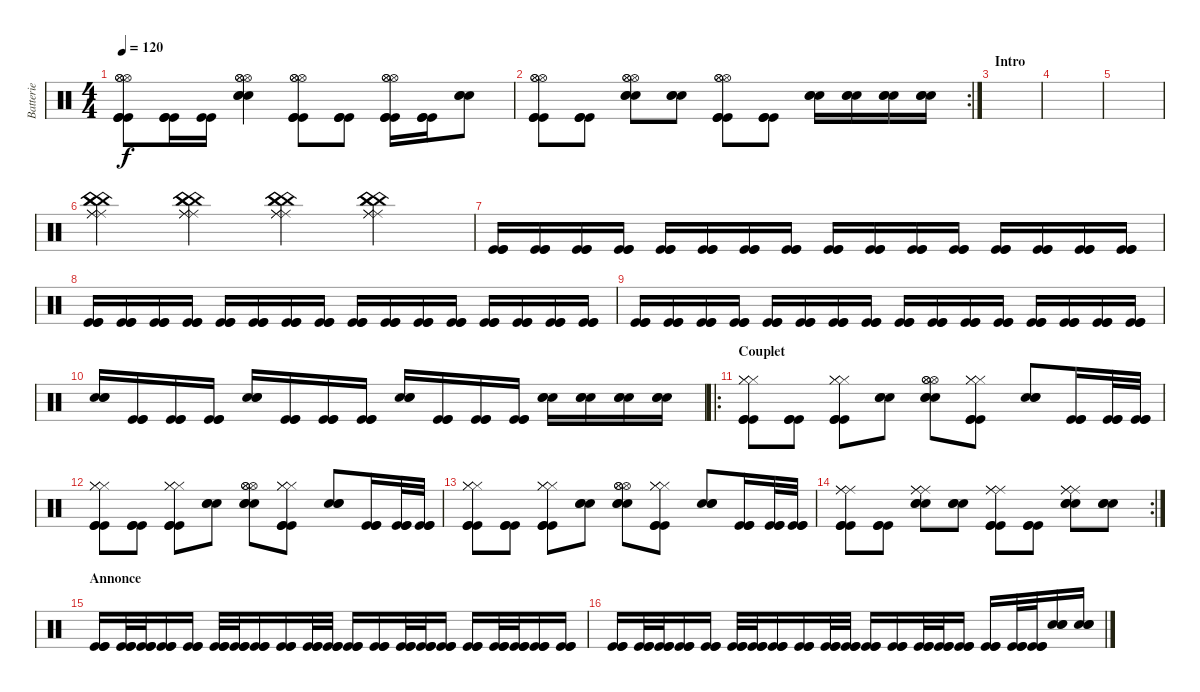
\track ("Batterie" "Batterie") {instrument percussion}
\staff {score}
\articulation defaults
\ts (4 4)
\tempo 120
\clef neutral
\ks c
("Kick (hit)" "Kick (hit)" "Kick (hit)" "Hi-Hat (open)" "Hi-Hat (open)" "Hi-Hat (open)").8{dy f} ("Kick (hit)" "Kick (hit)" "Kick (hit)").16 ("Kick (hit)" "Kick (hit)").16 ("Hi-Hat (open)" "Snare (hit) 2" "Snare (hit) 2" "Snare (hit) 2" "Hi-Hat (open)" "Hi-Hat (open)").4 ("Hi-Hat (open)" "Hi-Hat (open)" "Hi-Hat (open)" "Kick (hit)" "Kick (hit)" "Kick (hit)").8 ("Kick (hit)" "Kick (hit)" "Kick (hit)").8 ("Kick (hit)" "Kick (hit)" "Kick (hit)" "Hi-Hat (open)" "Hi-Hat (open)" "Hi-Hat (open)").16 ("Kick (hit)" "Kick (hit)" "Kick (hit)").16 ("Snare (hit) 2" "Snare (hit) 2" "Snare (hit) 2").8 |
\rc 2
("Hi-Hat (open)" "Hi-Hat (open)" "Hi-Hat (open)" "Kick (hit)" "Kick (hit)" "Kick (hit)").8 ("Kick (hit)" "Kick (hit)" "Kick (hit)").8 ("Hi-Hat (open)" "Hi-Hat (open)" "Snare (hit) 2" "Snare (hit) 2" "Snare (hit) 2" "Hi-Hat (open)").8 ("Snare (hit) 2" "Snare (hit) 2" "Snare (hit) 2").8 ("Hi-Hat (open)" "Hi-Hat (open)" "Hi-Hat (open)" "Kick (hit)" "Kick (hit)" "Kick (hit)").8 ("Kick (hit)" "Kick (hit)" "Kick (hit)").8 ("Snare (hit) 2" "Snare (hit) 2" "Snare (hit) 2").16 ("Snare (hit) 2" "Snare (hit) 2" "Snare (hit) 2").16 ("Snare (hit) 2" "Snare (hit) 2" "Snare (hit) 2").16 ("Snare (hit) 2" "Snare (hit) 2" "Snare (hit) 2").16 |
\section ("" "Intro")
|
|
|
("China (hit)" "China (hit)" "China (hit)" "Ride (middle)" "Ride (middle)" "Ride (middle)").4 ("China (hit)" "China (hit)" "China (hit)" "Ride (middle)" "Ride (middle)" "Ride (middle)").4 ("China (hit)" "China (hit)" "China (hit)" "Ride (middle)" "Ride (middle)" "Ride (middle)").4 ("China (hit)" "China (hit)" "China (hit)" "Ride (middle)" "Ride (middle)" "Ride (middle)").4 |
("Kick (hit)" "Kick (hit)" "Kick (hit)").16 ("Kick (hit)" "Kick (hit)" "Kick (hit)").16 ("Kick (hit)" "Kick (hit)" "Kick (hit)").16 ("Kick (hit)" "Kick (hit)" "Kick (hit)").16 ("Kick (hit)" "Kick (hit)" "Kick (hit)").16 ("Kick (hit)" "Kick (hit)" "Kick (hit)").16 ("Kick (hit)" "Kick (hit)" "Kick (hit)").16 ("Kick (hit)" "Kick (hit)" "Kick (hit)").16 ("Kick (hit)" "Kick (hit)" "Kick (hit)").16 ("Kick (hit)" "Kick (hit)" "Kick (hit)").16 ("Kick (hit)" "Kick (hit)" "Kick (hit)").16 ("Kick (hit)" "Kick (hit)" "Kick (hit)").16 ("Kick (hit)" "Kick (hit)" "Kick (hit)").16 ("Kick (hit)" "Kick (hit)" "Kick (hit)").16 ("Kick (hit)" "Kick (hit)" "Kick (hit)").16 ("Kick (hit)" "Kick (hit)" "Kick (hit)").16 |
("Kick (hit)" "Kick (hit)" "Kick (hit)").16 ("Kick (hit)" "Kick (hit)" "Kick (hit)").16 ("Kick (hit)" "Kick (hit)" "Kick (hit)").16 ("Kick (hit)" "Kick (hit)" "Kick (hit)").16 ("Kick (hit)" "Kick (hit)" "Kick (hit)").16 ("Kick (hit)" "Kick (hit)" "Kick (hit)").16 ("Kick (hit)" "Kick (hit)" "Kick (hit)").16 ("Kick (hit)" "Kick (hit)" "Kick (hit)").16 ("Kick (hit)" "Kick (hit)" "Kick (hit)").16 ("Kick (hit)" "Kick (hit)" "Kick (hit)").16 ("Kick (hit)" "Kick (hit)" "Kick (hit)").16 ("Kick (hit)" "Kick (hit)" "Kick (hit)").16 ("Kick (hit)" "Kick (hit)" "Kick (hit)").16 ("Kick (hit)" "Kick (hit)" "Kick (hit)").16 ("Kick (hit)" "Kick (hit)" "Kick (hit)").16 ("Kick (hit)" "Kick (hit)" "Kick (hit)").16 |
("Kick (hit)" "Kick (hit)" "Kick (hit)").16 ("Kick (hit)" "Kick (hit)" "Kick (hit)").16 ("Kick (hit)" "Kick (hit)" "Kick (hit)").16 ("Kick (hit)" "Kick (hit)" "Kick (hit)").16 ("Kick (hit)" "Kick (hit)" "Kick (hit)").16 ("Kick (hit)" "Kick (hit)" "Kick (hit)").16 ("Kick (hit)" "Kick (hit)" "Kick (hit)").16 ("Kick (hit)" "Kick (hit)" "Kick (hit)").16 ("Kick (hit)" "Kick (hit)" "Kick (hit)").16 ("Kick (hit)" "Kick (hit)" "Kick (hit)").16 ("Kick (hit)" "Kick (hit)" "Kick (hit)").16 ("Kick (hit)" "Kick (hit)" "Kick (hit)").16 ("Kick (hit)" "Kick (hit)" "Kick (hit)").16 ("Kick (hit)" "Kick (hit)" "Kick (hit)").16 ("Kick (hit)" "Kick (hit)" "Kick (hit)").16 ("Kick (hit)" "Kick (hit)" "Kick (hit)").16 |
("Snare (hit) 2" "Snare (hit) 2" "Snare (hit) 2").16 ("Kick (hit)" "Kick (hit)" "Kick (hit)").16 ("Kick (hit)" "Kick (hit)" "Kick (hit)").16 ("Kick (hit)" "Kick (hit)" "Kick (hit)").16 ("Snare (hit) 2" "Snare (hit) 2" "Snare (hit) 2").16 ("Kick (hit)" "Kick (hit)" "Kick (hit)").16 ("Kick (hit)" "Kick (hit)" "Kick (hit)").16 ("Kick (hit)" "Kick (hit)" "Kick (hit)").16 ("Snare (hit) 2" "Snare (hit) 2" "Snare (hit) 2").16 ("Kick (hit)" "Kick (hit)" "Kick (hit)").16 ("Kick (hit)" "Kick (hit)" "Kick (hit)").16 ("Kick (hit)" "Kick (hit)" "Kick (hit)").16 ("Snare (hit) 2" "Snare (hit) 2" "Snare (hit) 2").16 ("Snare (hit) 2" "Snare (hit) 2" "Snare (hit) 2").16 ("Snare (hit) 2" "Snare (hit) 2" "Snare (hit) 2").16 ("Snare (hit) 2" "Snare (hit) 2" "Snare (hit) 2").16 |
\ro
\section ("" "Couplet")
("Hi-Hat (closed)" "Hi-Hat (closed)" "Hi-Hat (closed)" "Kick (hit)" "Kick (hit)" "Kick (hit)").8 ("Kick (hit)" "Kick (hit)" "Kick (hit)").8 ("Hi-Hat (closed)" "Hi-Hat (closed)" "Hi-Hat (closed)" "Kick (hit)" "Kick (hit)" "Kick (hit)").8 ("Snare (hit) 2" "Snare (hit) 2" "Snare (hit) 2").8 ("Hi-Hat (open)" "Hi-Hat (open)" "Hi-Hat (open)" "Snare (hit) 2" "Snare (hit) 2" "Snare (hit) 2").8 ("Hi-Hat (closed)" "Hi-Hat (closed)" "Kick (hit)" "Kick (hit)" "Kick (hit)" "Hi-Hat (closed)").8 ("Snare (hit) 2" "Snare (hit) 2" "Snare (hit) 2").8 ("Kick (hit)" "Kick (hit)" "Kick (hit)").16 ("Kick (hit)" "Kick (hit)" "Kick (hit)").32 ("Kick (hit)" "Kick (hit)" "Kick (hit)").32 |
("Hi-Hat (closed)" "Hi-Hat (closed)" "Hi-Hat (closed)" "Kick (hit)" "Kick (hit)" "Kick (hit)").8 ("Kick (hit)" "Kick (hit)" "Kick (hit)").8 ("Hi-Hat (closed)" "Hi-Hat (closed)" "Hi-Hat (closed)" "Kick (hit)" "Kick (hit)" "Kick (hit)").8 ("Snare (hit) 2" "Snare (hit) 2" "Snare (hit) 2").8 ("Hi-Hat (open)" "Hi-Hat (open)" "Hi-Hat (open)" "Snare (hit) 2" "Snare (hit) 2" "Snare (hit) 2").8 ("Hi-Hat (closed)" "Hi-Hat (closed)" "Kick (hit)" "Kick (hit)" "Kick (hit)" "Hi-Hat (closed)").8 ("Snare (hit) 2" "Snare (hit) 2" "Snare (hit) 2").8 ("Kick (hit)" "Kick (hit)" "Kick (hit)").16 ("Kick (hit)" "Kick (hit)" "Kick (hit)").32 ("Kick (hit)" "Kick (hit)" "Kick (hit)").32 |
("Hi-Hat (closed)" "Hi-Hat (closed)" "Hi-Hat (closed)" "Kick (hit)" "Kick (hit)" "Kick (hit)").8 ("Kick (hit)" "Kick (hit)" "Kick (hit)").8 ("Hi-Hat (closed)" "Hi-Hat (closed)" "Hi-Hat (closed)" "Kick (hit)" "Kick (hit)" "Kick (hit)").8 ("Snare (hit) 2" "Snare (hit) 2" "Snare (hit) 2").8 ("Hi-Hat (open)" "Hi-Hat (open)" "Hi-Hat (open)" "Snare (hit) 2" "Snare (hit) 2" "Snare (hit) 2").8 ("Hi-Hat (closed)" "Hi-Hat (closed)" "Kick (hit)" "Kick (hit)" "Kick (hit)" "Hi-Hat (closed)").8 ("Snare (hit) 2" "Snare (hit) 2" "Snare (hit) 2").8 ("Kick (hit)" "Kick (hit)" "Kick (hit)").16 ("Kick (hit)" "Kick (hit)" "Kick (hit)").32 ("Kick (hit)" "Kick (hit)" "Kick (hit)").32 |
\rc 2
("Ride (middle)" "Ride (middle)" "Ride (middle)" "Kick (hit)" "Kick (hit)" "Kick (hit)").8 ("Kick (hit)" "Kick (hit)" "Kick (hit)").8 ("Ride (middle)" "Ride (middle)" "Ride (middle)" "Snare (hit) 2" "Snare (hit) 2" "Snare (hit) 2").8 ("Snare (hit) 2" "Snare (hit) 2" "Snare (hit) 2").8 ("Kick (hit)" "Kick (hit)" "Ride (middle)" "Ride (middle)" "Ride (middle)" "Kick (hit)").8 ("Kick (hit)" "Kick (hit)" "Kick (hit)").8 ("Snare (hit) 2" "Snare (hit) 2" "Snare (hit) 2" "Ride (middle)" "Ride (middle)" "Ride (middle)").8 ("Snare (hit) 2" "Snare (hit) 2" "Snare (hit) 2").8 |
\section ("" "Annonce")
("Kick (hit)" "Kick (hit)" "Kick (hit)").16 ("Kick (hit)" "Kick (hit)" "Kick (hit)").32 ("Kick (hit)" "Kick (hit)" "Kick (hit)").32 ("Kick (hit)" "Kick (hit)" "Kick (hit)").16 ("Kick (hit)" "Kick (hit)" "Kick (hit)").16 ("Kick (hit)" "Kick (hit)" "Kick (hit)").32 ("Kick (hit)" "Kick (hit)" "Kick (hit)").32 ("Kick (hit)" "Kick (hit)" "Kick (hit)").16 ("Kick (hit)" "Kick (hit)" "Kick (hit)").16 ("Kick (hit)" "Kick (hit)" "Kick (hit)").32 ("Kick (hit)" "Kick (hit)" "Kick (hit)").32 ("Kick (hit)" "Kick (hit)" "Kick (hit)").16 ("Kick (hit)" "Kick (hit)" "Kick (hit)").16 ("Kick (hit)" "Kick (hit)" "Kick (hit)").32 ("Kick (hit)" "Kick (hit)" "Kick (hit)").32 ("Kick (hit)" "Kick (hit)" "Kick (hit)").16 ("Kick (hit)" "Kick (hit)" "Kick (hit)").16 ("Kick (hit)" "Kick (hit)" "Kick (hit)").32 ("Kick (hit)" "Kick (hit)" "Kick (hit)").32 ("Kick (hit)" "Kick (hit)" "Kick (hit)").16 ("Kick (hit)" "Kick (hit)" "Kick (hit)").16 |
("Kick (hit)" "Kick (hit)" "Kick (hit)").16 ("Kick (hit)" "Kick (hit)" "Kick (hit)").32 ("Kick (hit)" "Kick (hit)" "Kick (hit)").32 ("Kick (hit)" "Kick (hit)" "Kick (hit)").16 ("Kick (hit)" "Kick (hit)" "Kick (hit)").16 ("Kick (hit)" "Kick (hit)" "Kick (hit)").32 ("Kick (hit)" "Kick (hit)" "Kick (hit)").32 ("Kick (hit)" "Kick (hit)" "Kick (hit)").16 ("Kick (hit)" "Kick (hit)" "Kick (hit)").16 ("Kick (hit)" "Kick (hit)" "Kick (hit)").32 ("Kick (hit)" "Kick (hit)" "Kick (hit)").32 ("Kick (hit)" "Kick (hit)" "Kick (hit)").16 ("Kick (hit)" "Kick (hit)" "Kick (hit)").16 ("Kick (hit)" "Kick (hit)" "Kick (hit)").32 ("Kick (hit)" "Kick (hit)" "Kick (hit)").32 ("Kick (hit)" "Kick (hit)" "Kick (hit)").16 ("Kick (hit)" "Kick (hit)" "Kick (hit)").16 ("Kick (hit)" "Kick (hit)" "Kick (hit)").32 ("Kick (hit)" "Kick (hit)" "Kick (hit)").32 ("Snare (hit) 2" "Snare (hit) 2" "Snare (hit) 2").16 ("Snare (hit) 2" "Snare (hit) 2" "Snare (hit) 2").16
